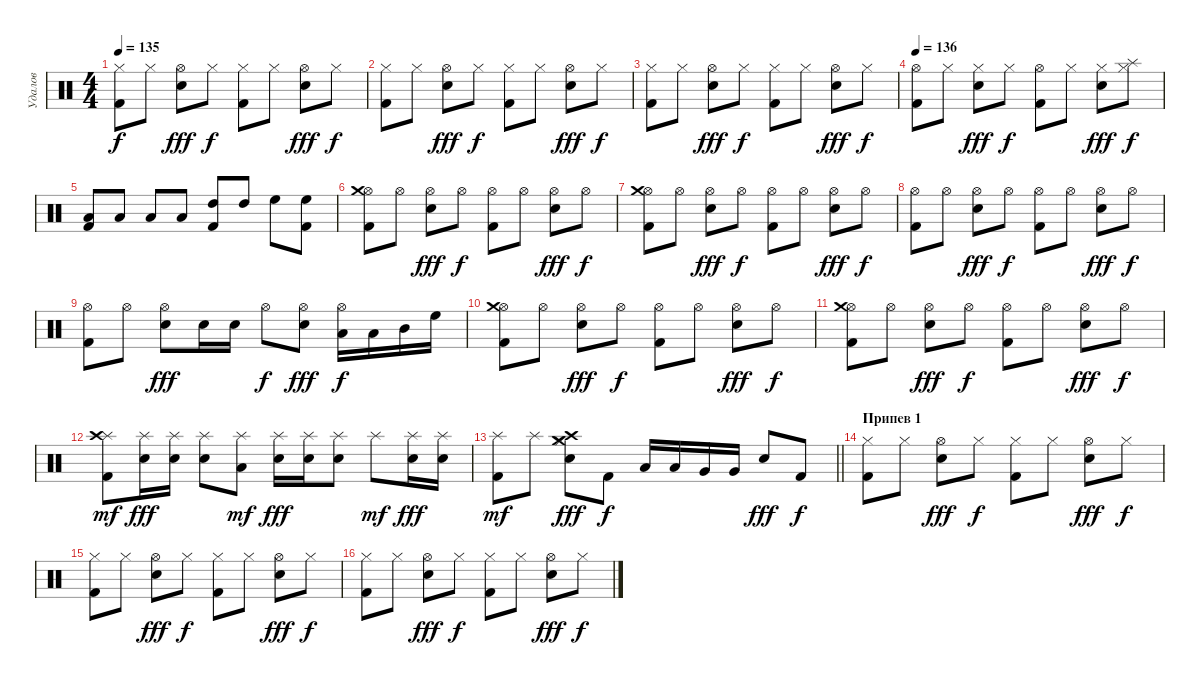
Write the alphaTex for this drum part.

\track ("Удалов" "Удалов") {instrument percussion}
\staff {score}
\articulation defaults
\ts (4 4)
\tempo 135
\clef neutral
\ks c
("Hi-Hat (closed)" "Kick (hit) 2").8{dy f} "Hi-Hat (closed)".8 ("Hi-Hat (open)" "Snare (hit) 2").8{dy fff} "Hi-Hat (closed)".8{dy f} ("Hi-Hat (closed)" "Kick (hit) 2").8 "Hi-Hat (closed)".8 ("Hi-Hat (open)" "Snare (hit) 2").8{dy fff} "Hi-Hat (closed)".8{dy f} |
("Hi-Hat (closed)" "Kick (hit) 2").8 "Hi-Hat (closed)".8 ("Hi-Hat (open)" "Snare (hit) 2").8{dy fff} "Hi-Hat (closed)".8{dy f} ("Hi-Hat (closed)" "Kick (hit) 2").8 "Hi-Hat (closed)".8 ("Hi-Hat (open)" "Snare (hit) 2").8{dy fff} "Hi-Hat (closed)".8{dy f} |
("Hi-Hat (closed)" "Kick (hit) 2").8 "Hi-Hat (closed)".8 ("Hi-Hat (open)" "Snare (hit) 2").8{dy fff} "Hi-Hat (closed)".8{dy f} ("Hi-Hat (closed)" "Kick (hit) 2").8 "Hi-Hat (closed)".8 ("Hi-Hat (open)" "Snare (hit) 2").8{dy fff} "Hi-Hat (closed)".8{dy f} |
\tempo 136
("Hi-Hat (open)" "Kick (hit) 2").8 "Hi-Hat (closed)".8 ("Hi-Hat (closed)" "Snare (hit) 2").8{dy fff} "Hi-Hat (closed)".8{dy f} ("Hi-Hat (open)" "Kick (hit) 2").8 "Hi-Hat (closed)".8 ("Hi-Hat (closed)" "Snare (hit) 2").8{dy fff} ("Hi-Hat (closed)" "Splash (hit)").8{dy f} |
("Kick (hit) 2" "Low Floor Tom (hit)").8 "Low Floor Tom (hit)".8 "Low Tom (hit)".8 "Low Tom (hit)".8 ("High Tom (hit)" "Kick (hit) 2").8 "High Tom (hit)".8 "High Floor Tom (hit)".8 ("High Floor Tom (hit)" "Kick (hit) 2").8 |
("Hi-Hat (open)" "Kick (hit) 2" "Crash medium (hit)").8 "Hi-Hat (open)".8 ("Hi-Hat (open)" "Snare (hit) 2").8{dy fff} "Hi-Hat (open)".8{dy f} ("Hi-Hat (open)" "Kick (hit) 2").8 "Hi-Hat (open)".8 ("Hi-Hat (open)" "Snare (hit) 2").8{dy fff} "Hi-Hat (open)".8{dy f} |
("Hi-Hat (open)" "Kick (hit) 2" "Crash medium (hit)").8 "Hi-Hat (open)".8 ("Hi-Hat (open)" "Snare (hit) 2").8{dy fff} "Hi-Hat (open)".8{dy f} ("Hi-Hat (open)" "Kick (hit) 2").8 "Hi-Hat (open)".8 ("Hi-Hat (open)" "Snare (hit) 2").8{dy fff} "Hi-Hat (open)".8{dy f} |
("Hi-Hat (open)" "Kick (hit) 2").8 "Hi-Hat (open)".8 ("Hi-Hat (open)" "Snare (hit) 2").8{dy fff} "Hi-Hat (open)".8{dy f} ("Hi-Hat (open)" "Kick (hit) 2").8 "Hi-Hat (open)".8 ("Hi-Hat (open)" "Snare (hit) 2").8{dy fff} "Hi-Hat (open)".8{dy f} |
("Hi-Hat (open)" "Kick (hit) 2").8 "Hi-Hat (open)".8 ("Hi-Hat (open)" "Snare (hit) 2").8{dy fff} "Snare (hit) 2".16 "Snare (hit) 2".16 "Hi-Hat (open)".8{dy f} ("Hi-Hat (open)" "Snare (hit) 2").8{dy fff} ("Hi-Hat (open)" "Low Floor Tom (hit)").16{dy f} "Low Tom (hit)".16 "Mid Tom (hit)".16 "High Floor Tom (hit)".16 |
("Hi-Hat (open)" "Kick (hit) 2" "Crash medium (hit)").8 "Hi-Hat (open)".8 ("Hi-Hat (open)" "Snare (hit) 2").8{dy fff} "Hi-Hat (open)".8{dy f} ("Hi-Hat (open)" "Kick (hit) 2").8 "Hi-Hat (open)".8 ("Hi-Hat (open)" "Snare (hit) 2").8{dy fff} "Hi-Hat (open)".8{dy f} |
("Hi-Hat (open)" "Kick (hit) 2" "Crash medium (hit)").8 "Hi-Hat (open)".8 ("Hi-Hat (open)" "Snare (hit) 2").8{dy fff} "Hi-Hat (open)".8{dy f} ("Hi-Hat (open)" "Kick (hit) 2").8 "Hi-Hat (open)".8 ("Hi-Hat (open)" "Snare (hit) 2").8{dy fff} "Hi-Hat (open)".8{dy f} |
("Splash (hit)" "Crash high (hit)" "Kick (hit) 2").8{dy mf} ("Splash (hit)" "Snare (hit) 2").16{dy fff} ("Splash (hit)" "Snare (hit) 2").16 ("Splash (hit)" "Snare (hit) 2").8 ("Splash (hit)" "Low Floor Tom (hit)").8{dy mf} ("Splash (hit)" "Snare (hit) 2").16{dy fff} ("Splash (hit)" "Snare (hit) 2").16 ("Splash (hit)" "Snare (hit) 2").8 "Splash (hit)".8{dy mf} ("Splash (hit)" "Snare (hit) 2").16{dy fff} ("Splash (hit)" "Snare (hit) 2").16 |
\barLineRight lightlight
("Splash (hit)" "Kick (hit) 2").8{dy mf} "Splash (hit)".8 ("Hi-Hat (closed)" "Snare (hit) 2" "Crash high (hit)" "Crash medium (hit)").8{dy fff} "Kick (hit) 2".8{dy f} "Low Floor Tom (hit)".16 "Low Floor Tom (hit)".16 "Very Low Tom (hit)".16 "Very Low Tom (hit)".16 "Snare (hit) 2".8{dy fff} "Kick (hit) 2".8{dy f} |
\section ("" "Припев 1")
("Hi-Hat (closed)" "Kick (hit) 2").8 "Hi-Hat (closed)".8 ("Hi-Hat (open)" "Snare (hit) 2").8{dy fff} "Hi-Hat (closed)".8{dy f} ("Hi-Hat (closed)" "Kick (hit) 2").8 "Hi-Hat (closed)".8 ("Hi-Hat (open)" "Snare (hit) 2").8{dy fff} "Hi-Hat (closed)".8{dy f} |
("Hi-Hat (closed)" "Kick (hit) 2").8 "Hi-Hat (closed)".8 ("Hi-Hat (open)" "Snare (hit) 2").8{dy fff} "Hi-Hat (closed)".8{dy f} ("Hi-Hat (closed)" "Kick (hit) 2").8 "Hi-Hat (closed)".8 ("Hi-Hat (open)" "Snare (hit) 2").8{dy fff} "Hi-Hat (closed)".8{dy f} |
("Hi-Hat (closed)" "Kick (hit) 2").8 "Hi-Hat (closed)".8 ("Hi-Hat (open)" "Snare (hit) 2").8{dy fff} "Hi-Hat (closed)".8{dy f} ("Hi-Hat (closed)" "Kick (hit) 2").8 "Hi-Hat (closed)".8 ("Hi-Hat (open)" "Snare (hit) 2").8{dy fff} "Hi-Hat (closed)".8{dy f}
